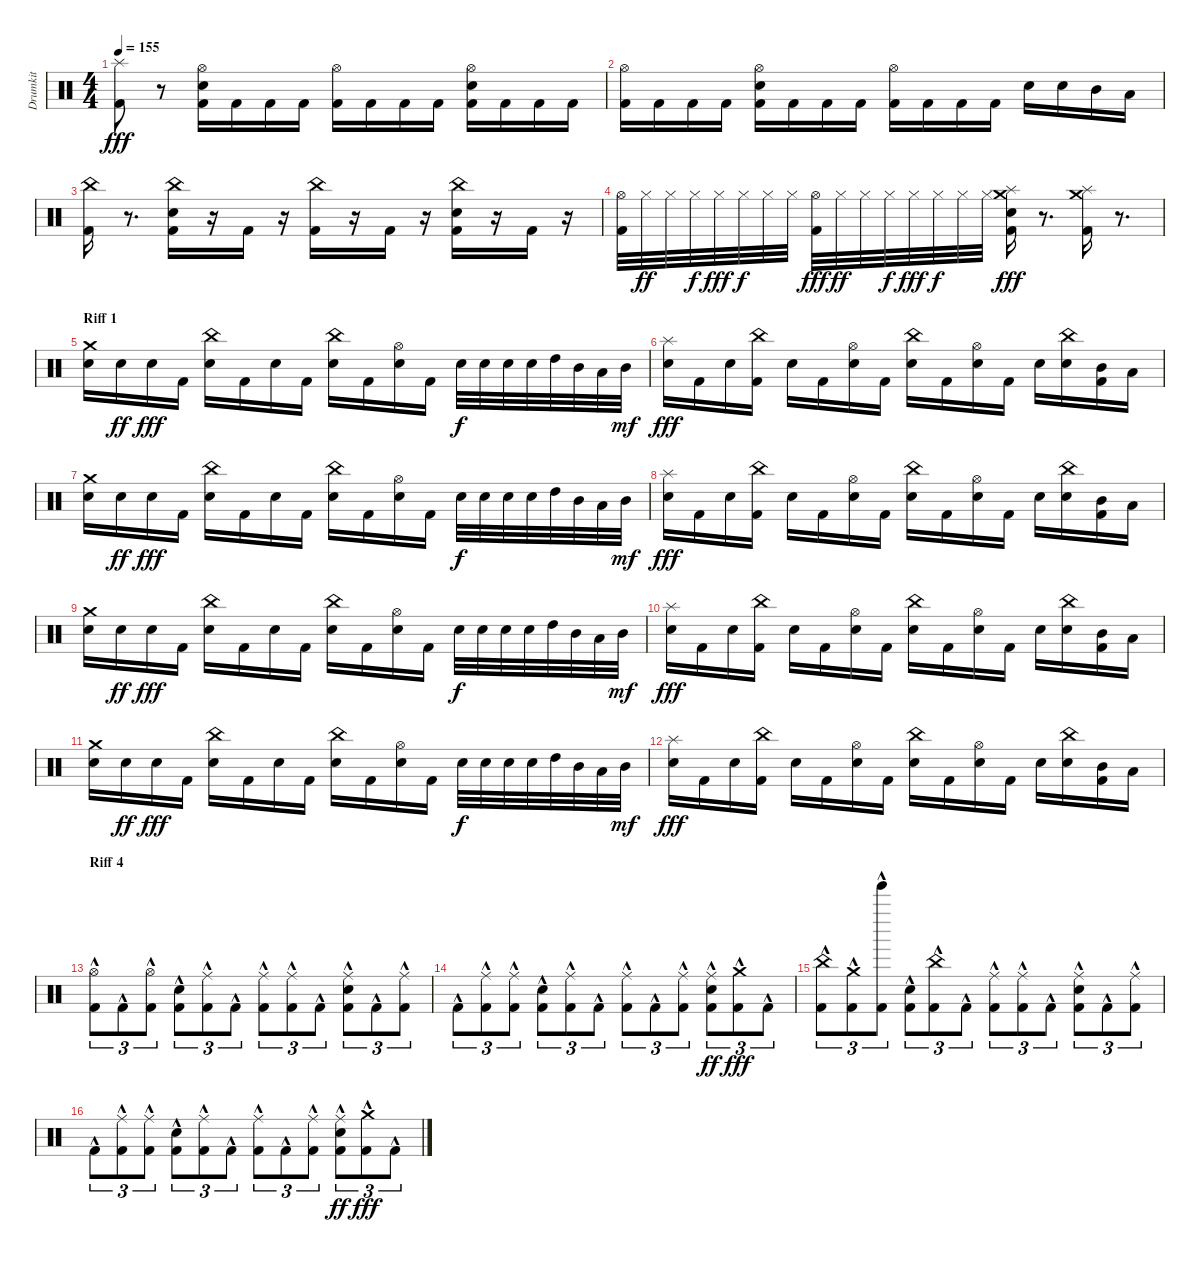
\track ("Drumkit" "Drumkit") {instrument percussion}
\staff {score}
\articulation defaults
\ts (4 4)
\tempo 155
\clef neutral
\ks c
("Kick (hit) 2" "Splash (hit)").8{dy fff} r.8 ("Kick (hit) 2" "Snare (hit) 2" "Hi-Hat (open)").16 "Kick (hit) 2".16 "Kick (hit) 2".16 "Kick (hit) 2".16 ("Kick (hit) 2" "Hi-Hat (open)").16 "Kick (hit) 2".16 "Kick (hit) 2".16 "Kick (hit) 2".16 ("Kick (hit) 2" "Snare (hit) 2" "Hi-Hat (open)").16 "Kick (hit) 2".16 "Kick (hit) 2".16 "Kick (hit) 2".16 |
("Kick (hit) 2" "Hi-Hat (open)").16 "Kick (hit) 2".16 "Kick (hit) 2".16 "Kick (hit) 2".16 ("Kick (hit) 2" "Snare (hit) 2" "Hi-Hat (open)").16 "Kick (hit) 2".16 "Kick (hit) 2".16 "Kick (hit) 2".16 ("Kick (hit) 2" "Hi-Hat (open)").16 "Kick (hit) 2".16 "Kick (hit) 2".16 "Kick (hit) 2".16 "Snare (hit) 2".16 "Snare (hit) 2".16 "Mid Tom (hit)".16 "Low Tom (hit)".16 |
("Kick (hit) 2" "China (hit)").16 r.8{d} ("Kick (hit) 2" "Snare (hit) 2" "China (hit)").16 r.16 "Kick (hit) 2".16 r.16 ("Kick (hit) 2" "China (hit)").16 r.16 "Kick (hit) 2".16 r.16 ("Kick (hit) 2" "Snare (hit) 2" "China (hit)").16 r.16 "Kick (hit) 2".16 r.16 |
("Kick (hit) 2" "Hi-Hat (open)").32 "Hi-Hat (closed)".32{dy ff} "Hi-Hat (closed)".32 "Hi-Hat (closed)".32{dy f} "Hi-Hat (closed)".32{dy fff} "Hi-Hat (closed)".32{dy f} "Hi-Hat (closed)".32 "Hi-Hat (closed)".32 ("Kick (hit) 2" "Hi-Hat (open)").32{dy fff} "Hi-Hat (closed)".32{dy ff} "Hi-Hat (closed)".32 "Hi-Hat (closed)".32{dy f} "Hi-Hat (closed)".32{dy fff} "Hi-Hat (closed)".32{dy f} "Hi-Hat (closed)".32 "Hi-Hat (closed)".32 ("Kick (hit) 2" "Snare (hit) 2" "Splash (hit)" "Crash medium (hit)").16{dy fff} r.8{d} ("Kick (hit) 2" "Splash (hit)" "Crash medium (hit)").16 r.8{d} |
\section ("" "Riff 1")
("Snare (hit) 2" "Crash medium (hit)").16 "Snare (hit) 2".16{dy ff} "Snare (hit) 2".16{dy fff} "Kick (hit) 2".16 ("Snare (hit) 2" "China (hit)").16 "Kick (hit) 2".16 "Snare (hit) 2".16 "Kick (hit) 2".16 ("Snare (hit) 2" "China (hit)").16 "Kick (hit) 2".16 ("Snare (hit) 2" "Hi-Hat (open)").16 "Kick (hit) 2".16 "Snare (hit) 2".32{dy f} "Snare (hit) 2".32 "Snare (hit) 2".32 "Snare (hit) 2".32 "High Tom (hit)".32 "Mid Tom (hit)".32 "Low Tom (hit)".32 "Mid Tom (hit)".32{dy mf} |
("Snare (hit) 2" "Splash (hit)").16{dy fff} "Kick (hit) 2".16 "Snare (hit) 2".16 ("Kick (hit) 2" "China (hit)").16 "Snare (hit) 2".16 "Kick (hit) 2".16 ("Snare (hit) 2" "Hi-Hat (open)").16 "Kick (hit) 2".16 ("Snare (hit) 2" "China (hit)").16 "Kick (hit) 2".16 ("Snare (hit) 2" "Hi-Hat (open)").16 "Kick (hit) 2".16 "Snare (hit) 2".16 ("Snare (hit) 2" "China (hit)").16 ("Kick (hit) 2" "Mid Tom (hit)").16 "Low Tom (hit)".16 |
("Snare (hit) 2" "Crash medium (hit)").16 "Snare (hit) 2".16{dy ff} "Snare (hit) 2".16{dy fff} "Kick (hit) 2".16 ("Snare (hit) 2" "China (hit)").16 "Kick (hit) 2".16 "Snare (hit) 2".16 "Kick (hit) 2".16 ("Snare (hit) 2" "China (hit)").16 "Kick (hit) 2".16 ("Snare (hit) 2" "Hi-Hat (open)").16 "Kick (hit) 2".16 "Snare (hit) 2".32{dy f} "Snare (hit) 2".32 "Snare (hit) 2".32 "Snare (hit) 2".32 "High Tom (hit)".32 "Mid Tom (hit)".32 "Low Tom (hit)".32 "Mid Tom (hit)".32{dy mf} |
("Snare (hit) 2" "Splash (hit)").16{dy fff} "Kick (hit) 2".16 "Snare (hit) 2".16 ("Kick (hit) 2" "China (hit)").16 "Snare (hit) 2".16 "Kick (hit) 2".16 ("Snare (hit) 2" "Hi-Hat (open)").16 "Kick (hit) 2".16 ("Snare (hit) 2" "China (hit)").16 "Kick (hit) 2".16 ("Snare (hit) 2" "Hi-Hat (open)").16 "Kick (hit) 2".16 "Snare (hit) 2".16 ("Snare (hit) 2" "China (hit)").16 ("Kick (hit) 2" "Mid Tom (hit)").16 "Low Tom (hit)".16 |
("Snare (hit) 2" "Crash medium (hit)").16 "Snare (hit) 2".16{dy ff} "Snare (hit) 2".16{dy fff} "Kick (hit) 2".16 ("Snare (hit) 2" "China (hit)").16 "Kick (hit) 2".16 "Snare (hit) 2".16 "Kick (hit) 2".16 ("Snare (hit) 2" "China (hit)").16 "Kick (hit) 2".16 ("Snare (hit) 2" "Hi-Hat (open)").16 "Kick (hit) 2".16 "Snare (hit) 2".32{dy f} "Snare (hit) 2".32 "Snare (hit) 2".32 "Snare (hit) 2".32 "High Tom (hit)".32 "Mid Tom (hit)".32 "Low Tom (hit)".32 "Mid Tom (hit)".32{dy mf} |
("Snare (hit) 2" "Splash (hit)").16{dy fff} "Kick (hit) 2".16 "Snare (hit) 2".16 ("Kick (hit) 2" "China (hit)").16 "Snare (hit) 2".16 "Kick (hit) 2".16 ("Snare (hit) 2" "Hi-Hat (open)").16 "Kick (hit) 2".16 ("Snare (hit) 2" "China (hit)").16 "Kick (hit) 2".16 ("Snare (hit) 2" "Hi-Hat (open)").16 "Kick (hit) 2".16 "Snare (hit) 2".16 ("Snare (hit) 2" "China (hit)").16 ("Kick (hit) 2" "Mid Tom (hit)").16 "Low Tom (hit)".16 |
("Snare (hit) 2" "Crash medium (hit)").16 "Snare (hit) 2".16{dy ff} "Snare (hit) 2".16{dy fff} "Kick (hit) 2".16 ("Snare (hit) 2" "China (hit)").16 "Kick (hit) 2".16 "Snare (hit) 2".16 "Kick (hit) 2".16 ("Snare (hit) 2" "China (hit)").16 "Kick (hit) 2".16 ("Snare (hit) 2" "Hi-Hat (open)").16 "Kick (hit) 2".16 "Snare (hit) 2".32{dy f} "Snare (hit) 2".32 "Snare (hit) 2".32 "Snare (hit) 2".32 "High Tom (hit)".32 "Mid Tom (hit)".32 "Low Tom (hit)".32 "Mid Tom (hit)".32{dy mf} |
("Snare (hit) 2" "Splash (hit)").16{dy fff} "Kick (hit) 2".16 "Snare (hit) 2".16 ("Kick (hit) 2" "China (hit)").16 "Snare (hit) 2".16 "Kick (hit) 2".16 ("Snare (hit) 2" "Hi-Hat (open)").16 "Kick (hit) 2".16 ("Snare (hit) 2" "China (hit)").16 "Kick (hit) 2".16 ("Snare (hit) 2" "Hi-Hat (open)").16 "Kick (hit) 2".16 "Snare (hit) 2".16 ("Snare (hit) 2" "China (hit)").16 ("Kick (hit) 2" "Mid Tom (hit)").16 "Low Tom (hit)".16 |
\section ("" "Riff 4")
("Kick (hit) 2"{hac} "Hi-Hat (open)"{hac}).8{tu (3 2)} "Kick (hit) 2"{hac}.8{tu (3 2)} ("Kick (hit) 2"{hac} "Hi-Hat (open)"{hac}).8{tu (3 2)} ("Kick (hit) 2"{hac} "Snare (hit) 2"{hac}).8{tu (3 2)} ("Kick (hit) 2"{hac} "Ride (middle)"{hac}).8{tu (3 2)} "Kick (hit) 2"{hac}.8{tu (3 2)} ("Kick (hit) 2"{hac} "Ride (middle)"{hac}).8{tu (3 2)} ("Kick (hit) 2"{hac} "Ride (middle)"{hac}).8{tu (3 2)} "Kick (hit) 2"{hac}.8{tu (3 2)} ("Kick (hit) 2"{hac} "Snare (hit) 2"{hac} "Ride (middle)"{hac}).8{tu (3 2)} "Kick (hit) 2"{hac}.8{tu (3 2)} ("Kick (hit) 2"{hac} "Ride (middle)"{hac}).8{tu (3 2)} |
"Kick (hit) 2"{hac}.8{tu (3 2)} ("Kick (hit) 2"{hac} "Ride (middle)"{hac}).8{tu (3 2)} ("Kick (hit) 2"{hac} "Ride (middle)"{hac}).8{tu (3 2)} ("Kick (hit) 2"{hac} "Snare (hit) 2"{hac}).8{tu (3 2)} ("Kick (hit) 2"{hac} "Ride (middle)"{hac}).8{tu (3 2)} "Kick (hit) 2"{hac}.8{tu (3 2)} ("Kick (hit) 2"{hac} "Ride (middle)"{hac}).8{tu (3 2)} "Kick (hit) 2"{hac}.8{tu (3 2)} ("Kick (hit) 2"{hac} "Ride (middle)"{hac}).8{tu (3 2)} ("Kick (hit) 2"{hac} "Snare (hit) 2"{hac} "Ride (middle)"{hac}).8{tu (3 2) dy ff} ("Kick (hit) 2"{hac} "Crash medium (hit)"{hac}).8{tu (3 2) dy fff} "Kick (hit) 2"{hac}.8{tu (3 2)} |
("Kick (hit) 2"{hac} "China (hit)"{hac}).8{tu (3 2)} ("Kick (hit) 2"{hac} "Crash medium (hit)"{hac}).8{tu (3 2)} ("Kick (hit) 2"{hac} "Tinkle Bell (hit)"{hac}).8{tu (3 2)} ("Kick (hit) 2"{hac} "Snare (hit) 2"{hac}).8{tu (3 2)} ("Kick (hit) 2"{hac} "China (hit)"{hac}).8{tu (3 2)} "Kick (hit) 2"{hac}.8{tu (3 2)} ("Kick (hit) 2"{hac} "Ride (middle)"{hac}).8{tu (3 2)} ("Kick (hit) 2"{hac} "Ride (middle)"{hac}).8{tu (3 2)} "Kick (hit) 2"{hac}.8{tu (3 2)} ("Kick (hit) 2"{hac} "Snare (hit) 2"{hac} "Ride (middle)"{hac}).8{tu (3 2)} "Kick (hit) 2"{hac}.8{tu (3 2)} ("Kick (hit) 2"{hac} "Ride (middle)"{hac}).8{tu (3 2)} |
"Kick (hit) 2"{hac}.8{tu (3 2)} ("Kick (hit) 2"{hac} "Ride (middle)"{hac}).8{tu (3 2)} ("Kick (hit) 2"{hac} "Ride (middle)"{hac}).8{tu (3 2)} ("Kick (hit) 2"{hac} "Snare (hit) 2"{hac}).8{tu (3 2)} ("Kick (hit) 2"{hac} "Ride (middle)"{hac}).8{tu (3 2)} "Kick (hit) 2"{hac}.8{tu (3 2)} ("Kick (hit) 2"{hac} "Ride (middle)"{hac}).8{tu (3 2)} "Kick (hit) 2"{hac}.8{tu (3 2)} ("Kick (hit) 2"{hac} "Ride (middle)"{hac}).8{tu (3 2)} ("Kick (hit) 2"{hac} "Snare (hit) 2"{hac} "Ride (middle)"{hac}).8{tu (3 2) dy ff} ("Kick (hit) 2"{hac} "Crash medium (hit)"{hac}).8{tu (3 2) dy fff} "Kick (hit) 2"{hac}.8{tu (3 2)}
